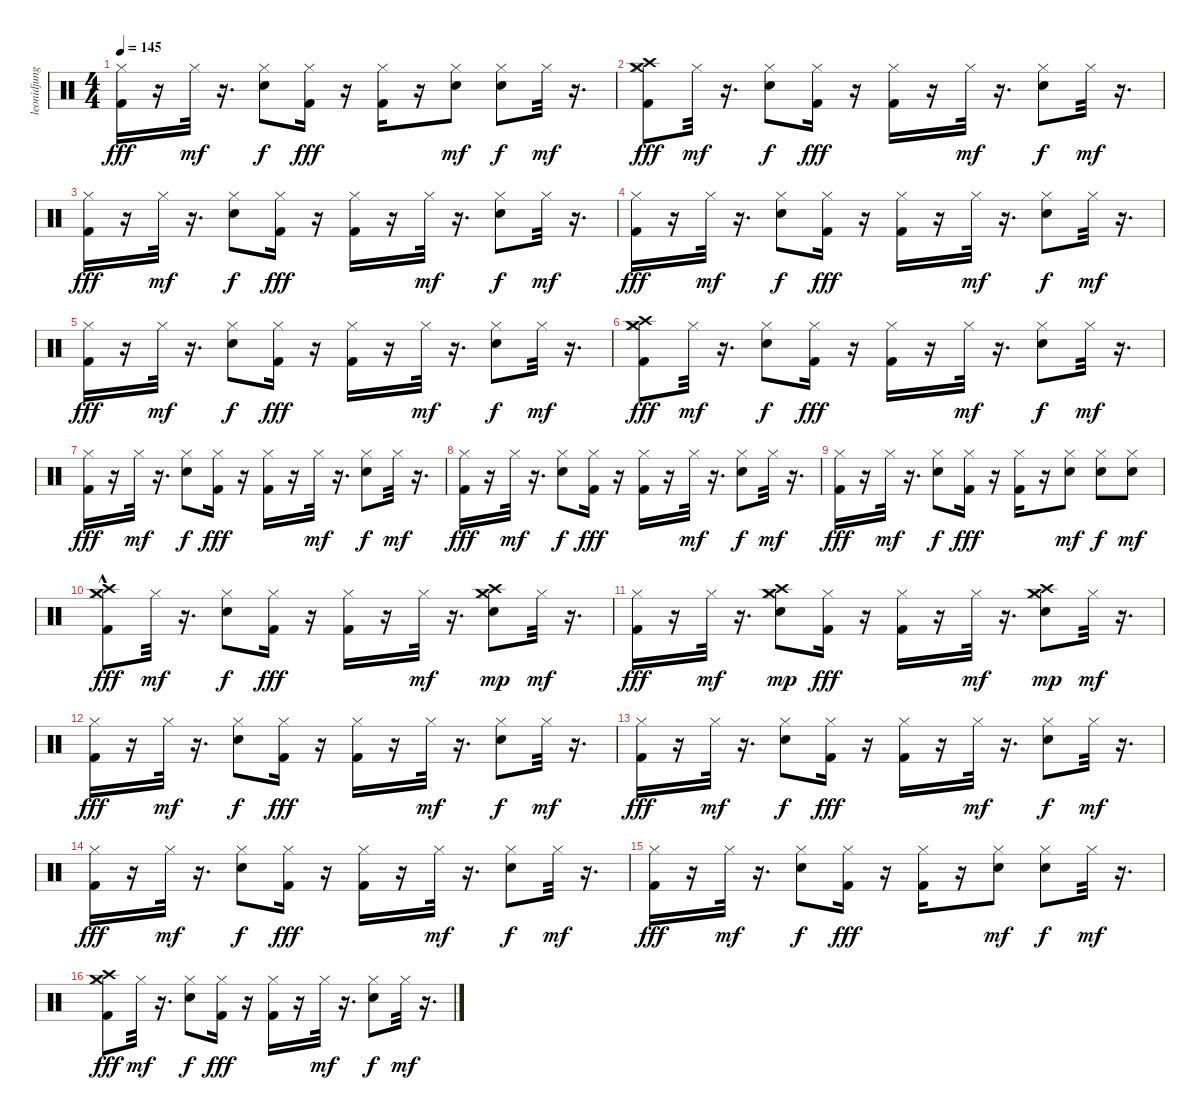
\track ("leonidjung@freenet.de" "leonidjung") {instrument percussion}
\staff {score}
\articulation defaults
\ts (4 4)
\tempo 145
\clef neutral
\ks c
("Hi-Hat (closed)" "Kick (hit) 2").16{dy fff} r.16 "Hi-Hat (closed)".32{dy mf} r.16{d} ("Snare (hit) 2" "Hi-Hat (closed)").8{dy f} ("Hi-Hat (closed)" "Kick (hit) 2").16{dy fff} r.16 ("Hi-Hat (closed)" "Kick (hit) 2").16 r.16 ("Snare (hit) 2" "Hi-Hat (closed)").8{dy mf} ("Snare (hit) 2" "Hi-Hat (closed)").8{dy f} "Hi-Hat (closed)".32{dy mf} r.16{d} |
("Hi-Hat (closed)" "Crash high (hit)" "Crash medium (hit)" "Kick (hit) 2").8{dy fff} "Hi-Hat (closed)".32{dy mf} r.16{d} ("Snare (hit) 2" "Hi-Hat (closed)").8{dy f} ("Hi-Hat (closed)" "Kick (hit) 2").16{dy fff} r.16 ("Hi-Hat (closed)" "Kick (hit) 2").16 r.16 "Hi-Hat (closed)".32{dy mf} r.16{d} ("Snare (hit) 2" "Hi-Hat (closed)").8{dy f} "Hi-Hat (closed)".32{dy mf} r.16{d} |
("Hi-Hat (closed)" "Kick (hit) 2").16{dy fff} r.16 "Hi-Hat (closed)".32{dy mf} r.16{d} ("Snare (hit) 2" "Hi-Hat (closed)").8{dy f} ("Hi-Hat (closed)" "Kick (hit) 2").16{dy fff} r.16 ("Hi-Hat (closed)" "Kick (hit) 2").16 r.16 "Hi-Hat (closed)".32{dy mf} r.16{d} ("Snare (hit) 2" "Hi-Hat (closed)").8{dy f} "Hi-Hat (closed)".32{dy mf} r.16{d} |
("Hi-Hat (closed)" "Kick (hit) 2").16{dy fff} r.16 "Hi-Hat (closed)".32{dy mf} r.16{d} ("Snare (hit) 2" "Hi-Hat (closed)").8{dy f} ("Hi-Hat (closed)" "Kick (hit) 2").16{dy fff} r.16 ("Hi-Hat (closed)" "Kick (hit) 2").16 r.16 "Hi-Hat (closed)".32{dy mf} r.16{d} ("Snare (hit) 2" "Hi-Hat (closed)").8{dy f} "Hi-Hat (closed)".32{dy mf} r.16{d} |
("Hi-Hat (closed)" "Kick (hit) 2").16{dy fff} r.16 "Hi-Hat (closed)".32{dy mf} r.16{d} ("Snare (hit) 2" "Hi-Hat (closed)").8{dy f} ("Hi-Hat (closed)" "Kick (hit) 2").16{dy fff} r.16 ("Hi-Hat (closed)" "Kick (hit) 2").16 r.16 "Hi-Hat (closed)".32{dy mf} r.16{d} ("Snare (hit) 2" "Hi-Hat (closed)").8{dy f} "Hi-Hat (closed)".32{dy mf} r.16{d} |
("Hi-Hat (closed)" "Crash high (hit)" "Crash medium (hit)" "Kick (hit) 2").8{dy fff} "Hi-Hat (closed)".32{dy mf} r.16{d} ("Snare (hit) 2" "Hi-Hat (closed)").8{dy f} ("Hi-Hat (closed)" "Kick (hit) 2").16{dy fff} r.16 ("Hi-Hat (closed)" "Kick (hit) 2").16 r.16 "Hi-Hat (closed)".32{dy mf} r.16{d} ("Snare (hit) 2" "Hi-Hat (closed)").8{dy f} "Hi-Hat (closed)".32{dy mf} r.16{d} |
("Hi-Hat (closed)" "Kick (hit) 2").16{dy fff} r.16 "Hi-Hat (closed)".32{dy mf} r.16{d} ("Snare (hit) 2" "Hi-Hat (closed)").8{dy f} ("Hi-Hat (closed)" "Kick (hit) 2").16{dy fff} r.16 ("Hi-Hat (closed)" "Kick (hit) 2").16 r.16 "Hi-Hat (closed)".32{dy mf} r.16{d} ("Snare (hit) 2" "Hi-Hat (closed)").8{dy f} "Hi-Hat (closed)".32{dy mf} r.16{d} |
("Hi-Hat (closed)" "Kick (hit) 2").16{dy fff} r.16 "Hi-Hat (closed)".32{dy mf} r.16{d} ("Snare (hit) 2" "Hi-Hat (closed)").8{dy f} ("Hi-Hat (closed)" "Kick (hit) 2").16{dy fff} r.16 ("Hi-Hat (closed)" "Kick (hit) 2").16 r.16 "Hi-Hat (closed)".32{dy mf} r.16{d} ("Snare (hit) 2" "Hi-Hat (closed)").8{dy f} "Hi-Hat (closed)".32{dy mf} r.16{d} |
("Hi-Hat (closed)" "Kick (hit) 2").16{dy fff} r.16 "Hi-Hat (closed)".32{dy mf} r.16{d} ("Snare (hit) 2" "Hi-Hat (closed)").8{dy f} ("Hi-Hat (closed)" "Kick (hit) 2").16{dy fff} r.16 ("Hi-Hat (closed)" "Kick (hit) 2").16 r.16 ("Snare (hit) 2" "Hi-Hat (closed)").8{dy mf} ("Snare (hit) 2" "Hi-Hat (closed)").8{dy f} ("Snare (hit) 2" "Hi-Hat (closed)").8{dy mf} |
("Hi-Hat (closed)" "Crash high (hit)"{hac} "Crash medium (hit)"{hac} "Kick (hit) 2").8{dy fff} "Hi-Hat (closed)".32{dy mf} r.16{d} ("Snare (hit) 2" "Hi-Hat (closed)").8{dy f} ("Hi-Hat (closed)" "Kick (hit) 2").16{dy fff} r.16 ("Hi-Hat (closed)" "Kick (hit) 2").16 r.16 "Hi-Hat (closed)".32{dy mf} r.16{d} ("Snare (hit) 2" "Hi-Hat (closed)" "Crash high (hit)" "Crash medium (hit)").8{dy mp} "Hi-Hat (closed)".32{dy mf} r.16{d} |
("Hi-Hat (closed)" "Kick (hit) 2").16{dy fff} r.16 "Hi-Hat (closed)".32{dy mf} r.16{d} ("Snare (hit) 2" "Hi-Hat (closed)" "Crash high (hit)" "Crash medium (hit)").8{dy mp} ("Hi-Hat (closed)" "Kick (hit) 2").16{dy fff} r.16 ("Hi-Hat (closed)" "Kick (hit) 2").16 r.16 "Hi-Hat (closed)".32{dy mf} r.16{d} ("Snare (hit) 2" "Hi-Hat (closed)" "Crash high (hit)" "Crash medium (hit)").8{dy mp} "Hi-Hat (closed)".32{dy mf} r.16{d} |
("Hi-Hat (closed)" "Kick (hit) 2").16{dy fff} r.16 "Hi-Hat (closed)".32{dy mf} r.16{d} ("Snare (hit) 2" "Hi-Hat (closed)").8{dy f} ("Hi-Hat (closed)" "Kick (hit) 2").16{dy fff} r.16 ("Hi-Hat (closed)" "Kick (hit) 2").16 r.16 "Hi-Hat (closed)".32{dy mf} r.16{d} ("Snare (hit) 2" "Hi-Hat (closed)").8{dy f} "Hi-Hat (closed)".32{dy mf} r.16{d} |
("Hi-Hat (closed)" "Kick (hit) 2").16{dy fff} r.16 "Hi-Hat (closed)".32{dy mf} r.16{d} ("Snare (hit) 2" "Hi-Hat (closed)").8{dy f} ("Hi-Hat (closed)" "Kick (hit) 2").16{dy fff} r.16 ("Hi-Hat (closed)" "Kick (hit) 2").16 r.16 "Hi-Hat (closed)".32{dy mf} r.16{d} ("Snare (hit) 2" "Hi-Hat (closed)").8{dy f} "Hi-Hat (closed)".32{dy mf} r.16{d} |
("Hi-Hat (closed)" "Kick (hit) 2").16{dy fff} r.16 "Hi-Hat (closed)".32{dy mf} r.16{d} ("Snare (hit) 2" "Hi-Hat (closed)").8{dy f} ("Hi-Hat (closed)" "Kick (hit) 2").16{dy fff} r.16 ("Hi-Hat (closed)" "Kick (hit) 2").16 r.16 "Hi-Hat (closed)".32{dy mf} r.16{d} ("Snare (hit) 2" "Hi-Hat (closed)").8{dy f} "Hi-Hat (closed)".32{dy mf} r.16{d} |
("Hi-Hat (closed)" "Kick (hit) 2").16{dy fff} r.16 "Hi-Hat (closed)".32{dy mf} r.16{d} ("Snare (hit) 2" "Hi-Hat (closed)").8{dy f} ("Hi-Hat (closed)" "Kick (hit) 2").16{dy fff} r.16 ("Hi-Hat (closed)" "Kick (hit) 2").16 r.16 ("Snare (hit) 2" "Hi-Hat (closed)").8{dy mf} ("Snare (hit) 2" "Hi-Hat (closed)").8{dy f} "Hi-Hat (closed)".32{dy mf} r.16{d} |
("Hi-Hat (closed)" "Crash high (hit)" "Crash medium (hit)" "Kick (hit) 2").8{dy fff} "Hi-Hat (closed)".32{dy mf} r.16{d} ("Snare (hit) 2" "Hi-Hat (closed)").8{dy f} ("Hi-Hat (closed)" "Kick (hit) 2").16{dy fff} r.16 ("Hi-Hat (closed)" "Kick (hit) 2").16 r.16 "Hi-Hat (closed)".32{dy mf} r.16{d} ("Snare (hit) 2" "Hi-Hat (closed)").8{dy f} "Hi-Hat (closed)".32{dy mf} r.16{d}
